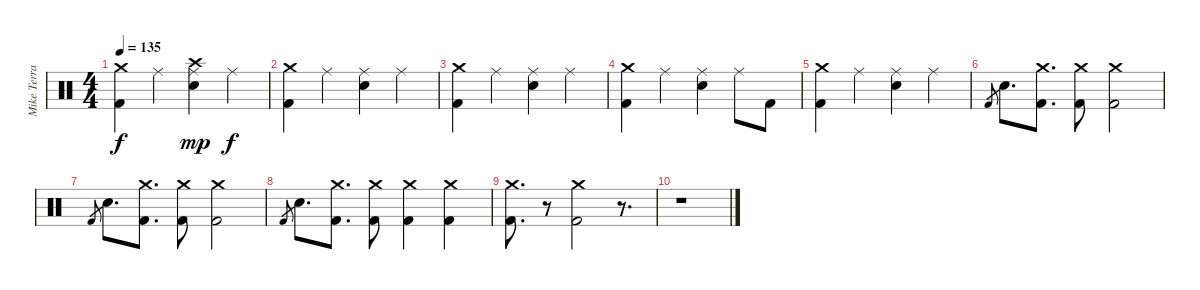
\track ("Mike Terrana" "Mike Terra") {instrument percussion}
\staff {score}
\articulation defaults
\ts (4 4)
\tempo 135
\clef neutral
\ks c
("Crash medium (hit)" "Kick (hit) 2").4{dy f} "Ride (middle)".4 ("Ride (middle)" "Crash high (hit)" "Snare (hit) 2").4{dy mp} "Ride (middle)".4{dy f} |
("Crash medium (hit)" "Kick (hit) 2").4 "Ride (middle)".4 ("Ride (middle)" "Snare (hit) 2").4 "Ride (middle)".4 |
("Crash medium (hit)" "Kick (hit) 2").4 "Ride (middle)".4 ("Ride (middle)" "Snare (hit) 2").4 "Ride (middle)".4 |
("Crash medium (hit)" "Kick (hit) 2").4 "Ride (middle)".4 ("Ride (middle)" "Snare (hit) 2").4 "Ride (middle)".8 "Kick (hit) 2".8 |
("Crash medium (hit)" "Kick (hit) 2").4 "Ride (middle)".4 ("Ride (middle)" "Snare (hit) 2").4 "Ride (middle)".4 |
"Kick (hit) 2".8{gr} "Snare (hit) 2".8{d} ("Crash medium (hit)" "Kick (hit) 2").8{d} ("Crash medium (hit)" "Kick (hit) 2").8 ("Crash medium (hit)" "Kick (hit) 2").2 |
"Kick (hit) 2".8{gr} "Snare (hit) 2".8{d} ("Crash medium (hit)" "Kick (hit) 2").8{d} ("Crash medium (hit)" "Kick (hit) 2").8 ("Crash medium (hit)" "Kick (hit) 2").2 |
"Kick (hit) 2".8{gr} "Snare (hit) 2".8{d} ("Crash medium (hit)" "Kick (hit) 2").8{d} ("Crash medium (hit)" "Kick (hit) 2").8 ("Crash medium (hit)" "Kick (hit) 2").4 ("Crash medium (hit)" "Kick (hit) 2").4 |
("Crash medium (hit)" "Kick (hit) 2").8{d} r.8 ("Crash medium (hit)" "Kick (hit) 2").2 r.8{d} |
r.1
